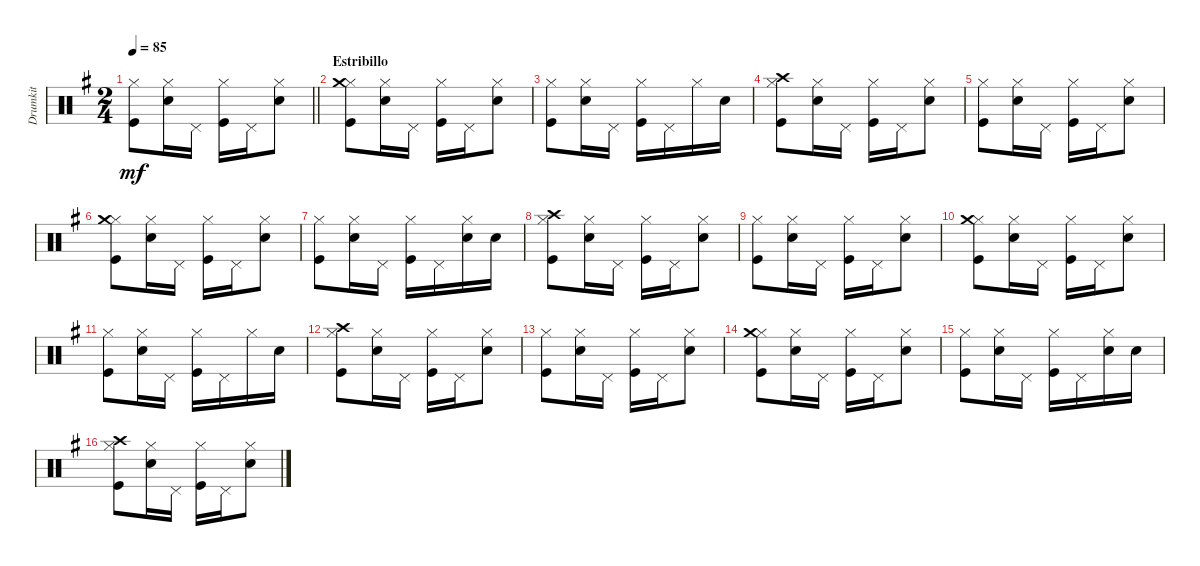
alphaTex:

\track ("Drumkit" "Drumkit") {instrument percussion}
\staff {score}
\articulation defaults
\ts (2 4)
\tempo 85
\clef neutral
\barLineRight lightlight
\ks g
("Kick (hit)" "Hi-Hat (closed)").8{dy mf} ("Snare (hit) 2" "Hi-Hat (closed)").16 "Pedal Hi-Hat (hit)".16 ("Kick (hit)" "Hi-Hat (closed)").16 "Pedal Hi-Hat (hit)".16 ("Snare (hit) 2" "Hi-Hat (closed)").8 |
\section ("" "Estribillo")
("Kick (hit)" "Hi-Hat (closed)" "Crash medium (hit)").8 ("Snare (hit) 2" "Hi-Hat (closed)").16 "Pedal Hi-Hat (hit)".16 ("Kick (hit)" "Hi-Hat (closed)").16 "Pedal Hi-Hat (hit)".16 ("Snare (hit) 2" "Hi-Hat (closed)").8 |
("Kick (hit)" "Hi-Hat (closed)").8 ("Snare (hit) 2" "Hi-Hat (closed)").16 "Pedal Hi-Hat (hit)".16 ("Kick (hit)" "Hi-Hat (closed)").16 "Pedal Hi-Hat (hit)".16 "Hi-Hat (closed)".16 "Snare (hit) 2".16 |
("Kick (hit)" "Hi-Hat (closed)" "Crash high (hit)").8 ("Snare (hit) 2" "Hi-Hat (closed)").16 "Pedal Hi-Hat (hit)".16 ("Kick (hit)" "Hi-Hat (closed)").16 "Pedal Hi-Hat (hit)".16 ("Snare (hit) 2" "Hi-Hat (closed)").8 |
("Kick (hit)" "Hi-Hat (closed)").8 ("Snare (hit) 2" "Hi-Hat (closed)").16 "Pedal Hi-Hat (hit)".16 ("Kick (hit)" "Hi-Hat (closed)").16 "Pedal Hi-Hat (hit)".16 ("Snare (hit) 2" "Hi-Hat (closed)").8 |
("Kick (hit)" "Hi-Hat (closed)" "Crash medium (hit)").8 ("Snare (hit) 2" "Hi-Hat (closed)").16 "Pedal Hi-Hat (hit)".16 ("Kick (hit)" "Hi-Hat (closed)").16 "Pedal Hi-Hat (hit)".16 ("Snare (hit) 2" "Hi-Hat (closed)").8 |
("Kick (hit)" "Hi-Hat (closed)").8 ("Snare (hit) 2" "Hi-Hat (closed)").16 "Pedal Hi-Hat (hit)".16 ("Kick (hit)" "Hi-Hat (closed)").16 "Pedal Hi-Hat (hit)".16 ("Snare (hit) 2" "Hi-Hat (closed)").16 "Snare (hit) 2".16 |
("Kick (hit)" "Hi-Hat (closed)" "Crash high (hit)").8 ("Snare (hit) 2" "Hi-Hat (closed)").16 "Pedal Hi-Hat (hit)".16 ("Kick (hit)" "Hi-Hat (closed)").16 "Pedal Hi-Hat (hit)".16 ("Snare (hit) 2" "Hi-Hat (closed)").8 |
("Kick (hit)" "Hi-Hat (closed)").8 ("Snare (hit) 2" "Hi-Hat (closed)").16 "Pedal Hi-Hat (hit)".16 ("Kick (hit)" "Hi-Hat (closed)").16 "Pedal Hi-Hat (hit)".16 ("Snare (hit) 2" "Hi-Hat (closed)").8 |
("Kick (hit)" "Hi-Hat (closed)" "Crash medium (hit)").8 ("Snare (hit) 2" "Hi-Hat (closed)").16 "Pedal Hi-Hat (hit)".16 ("Kick (hit)" "Hi-Hat (closed)").16 "Pedal Hi-Hat (hit)".16 ("Snare (hit) 2" "Hi-Hat (closed)").8 |
("Kick (hit)" "Hi-Hat (closed)").8 ("Snare (hit) 2" "Hi-Hat (closed)").16 "Pedal Hi-Hat (hit)".16 ("Kick (hit)" "Hi-Hat (closed)").16 "Pedal Hi-Hat (hit)".16 "Hi-Hat (closed)".16 "Snare (hit) 2".16 |
("Kick (hit)" "Hi-Hat (closed)" "Crash high (hit)").8 ("Snare (hit) 2" "Hi-Hat (closed)").16 "Pedal Hi-Hat (hit)".16 ("Kick (hit)" "Hi-Hat (closed)").16 "Pedal Hi-Hat (hit)".16 ("Snare (hit) 2" "Hi-Hat (closed)").8 |
("Kick (hit)" "Hi-Hat (closed)").8 ("Snare (hit) 2" "Hi-Hat (closed)").16 "Pedal Hi-Hat (hit)".16 ("Kick (hit)" "Hi-Hat (closed)").16 "Pedal Hi-Hat (hit)".16 ("Snare (hit) 2" "Hi-Hat (closed)").8 |
("Kick (hit)" "Hi-Hat (closed)" "Crash medium (hit)").8 ("Snare (hit) 2" "Hi-Hat (closed)").16 "Pedal Hi-Hat (hit)".16 ("Kick (hit)" "Hi-Hat (closed)").16 "Pedal Hi-Hat (hit)".16 ("Snare (hit) 2" "Hi-Hat (closed)").8 |
("Kick (hit)" "Hi-Hat (closed)").8 ("Snare (hit) 2" "Hi-Hat (closed)").16 "Pedal Hi-Hat (hit)".16 ("Kick (hit)" "Hi-Hat (closed)").16 "Pedal Hi-Hat (hit)".16 ("Snare (hit) 2" "Hi-Hat (closed)").16 "Snare (hit) 2".16 |
("Kick (hit)" "Hi-Hat (closed)" "Crash high (hit)").8 ("Snare (hit) 2" "Hi-Hat (closed)").16 "Pedal Hi-Hat (hit)".16 ("Kick (hit)" "Hi-Hat (closed)").16 "Pedal Hi-Hat (hit)".16 ("Snare (hit) 2" "Hi-Hat (closed)").8
